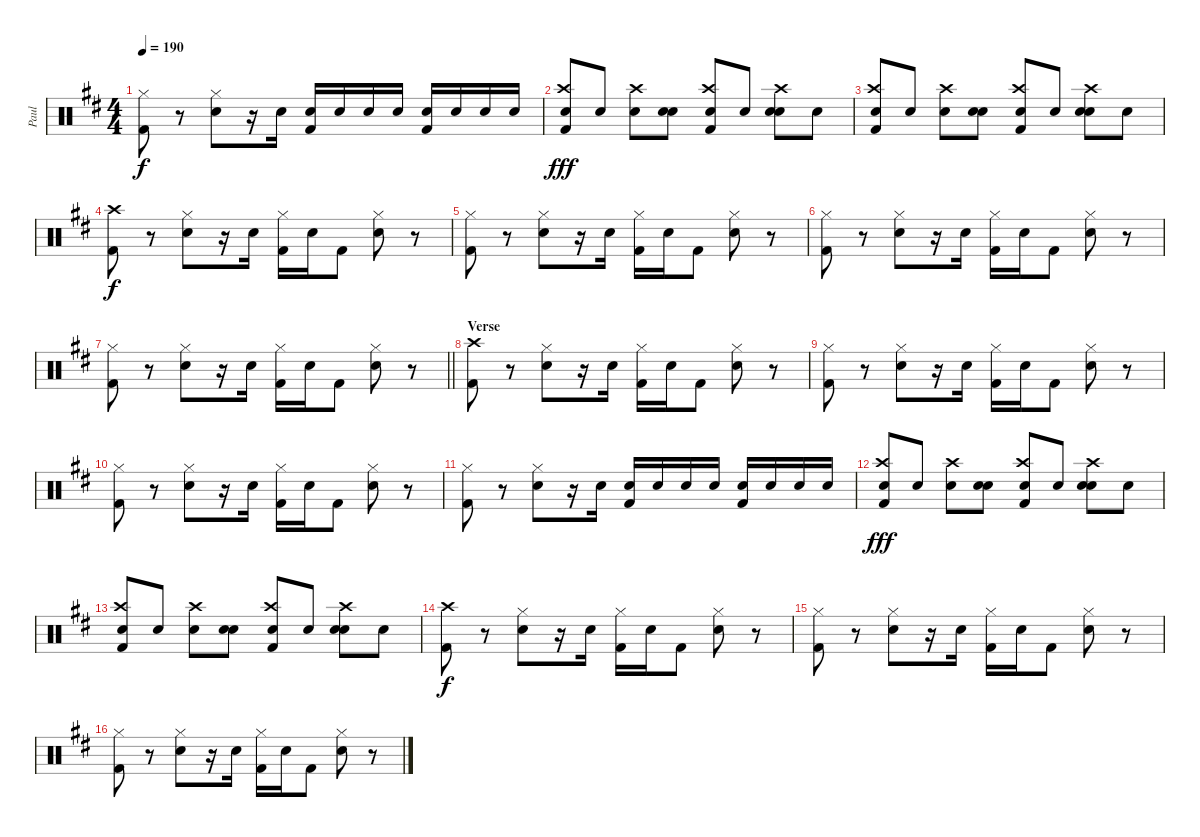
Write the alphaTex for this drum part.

\track ("Paul" "Paul") {instrument percussion}
\staff {score}
\articulation defaults
\ts (4 4)
\tempo 190
\clef neutral
\ks d
("Hi-Hat (closed)" "Kick (hit) 2").8{dy f} r.8 ("Hi-Hat (closed)" "Electric Snare (hit)").8 r.16 "Electric Snare (hit)".16 ("Electric Snare (hit)" "Kick (hit) 2").16 "Electric Snare (hit)".16 "Electric Snare (hit)".16 "Electric Snare (hit)".16 ("Electric Snare (hit)" "Kick (hit) 2").16 "Electric Snare (hit)".16 "Electric Snare (hit)".16 "Electric Snare (hit)".16 |
("Crash high (hit)" "Hand Clap (hit)" "Kick (hit) 2").8{dy fff} "Hand Clap (hit)".8 ("Crash high (hit)" "Hand Clap (hit)").8 ("Hand Clap (hit)" "Electric Snare (hit)").8 ("Crash high (hit)" "Hand Clap (hit)" "Kick (hit) 2").8 "Hand Clap (hit)".8 ("Crash high (hit)" "Hand Clap (hit)" "Electric Snare (hit)").8 "Hand Clap (hit)".8 |
("Crash high (hit)" "Hand Clap (hit)" "Kick (hit) 2").8 "Hand Clap (hit)".8 ("Crash high (hit)" "Hand Clap (hit)").8 ("Hand Clap (hit)" "Electric Snare (hit)").8 ("Crash high (hit)" "Hand Clap (hit)" "Kick (hit) 2").8 "Hand Clap (hit)".8 ("Crash high (hit)" "Hand Clap (hit)" "Electric Snare (hit)").8 "Hand Clap (hit)".8 |
("Crash high (hit)" "Kick (hit) 2").8{dy f} r.8 ("Hi-Hat (closed)" "Electric Snare (hit)").8 r.16 "Electric Snare (hit)".16 ("Hi-Hat (closed)" "Kick (hit) 2").16 "Electric Snare (hit)".16 "Kick (hit) 2".8 ("Hi-Hat (closed)" "Electric Snare (hit)").8 r.8 |
("Hi-Hat (closed)" "Kick (hit) 2").8 r.8 ("Hi-Hat (closed)" "Electric Snare (hit)").8 r.16 "Electric Snare (hit)".16 ("Hi-Hat (closed)" "Kick (hit) 2").16 "Electric Snare (hit)".16 "Kick (hit) 2".8 ("Hi-Hat (closed)" "Electric Snare (hit)").8 r.8 |
("Hi-Hat (closed)" "Kick (hit) 2").8 r.8 ("Hi-Hat (closed)" "Electric Snare (hit)").8 r.16 "Electric Snare (hit)".16 ("Hi-Hat (closed)" "Kick (hit) 2").16 "Electric Snare (hit)".16 "Kick (hit) 2".8 ("Hi-Hat (closed)" "Electric Snare (hit)").8 r.8 |
\barLineRight lightlight
("Hi-Hat (closed)" "Kick (hit) 2").8 r.8 ("Hi-Hat (closed)" "Electric Snare (hit)").8 r.16 "Electric Snare (hit)".16 ("Hi-Hat (closed)" "Kick (hit) 2").16 "Electric Snare (hit)".16 "Kick (hit) 2".8 ("Hi-Hat (closed)" "Electric Snare (hit)").8 r.8 |
\section ("" "Verse")
("Crash high (hit)" "Kick (hit) 2").8 r.8 ("Hi-Hat (closed)" "Electric Snare (hit)").8 r.16 "Electric Snare (hit)".16 ("Hi-Hat (closed)" "Kick (hit) 2").16 "Electric Snare (hit)".16 "Kick (hit) 2".8 ("Hi-Hat (closed)" "Electric Snare (hit)").8 r.8 |
("Hi-Hat (closed)" "Kick (hit) 2").8 r.8 ("Hi-Hat (closed)" "Electric Snare (hit)").8 r.16 "Electric Snare (hit)".16 ("Hi-Hat (closed)" "Kick (hit) 2").16 "Electric Snare (hit)".16 "Kick (hit) 2".8 ("Hi-Hat (closed)" "Electric Snare (hit)").8 r.8 |
("Hi-Hat (closed)" "Kick (hit) 2").8 r.8 ("Hi-Hat (closed)" "Electric Snare (hit)").8 r.16 "Electric Snare (hit)".16 ("Hi-Hat (closed)" "Kick (hit) 2").16 "Electric Snare (hit)".16 "Kick (hit) 2".8 ("Hi-Hat (closed)" "Electric Snare (hit)").8 r.8 |
("Hi-Hat (closed)" "Kick (hit) 2").8 r.8 ("Hi-Hat (closed)" "Electric Snare (hit)").8 r.16 "Electric Snare (hit)".16 ("Electric Snare (hit)" "Kick (hit) 2").16 "Electric Snare (hit)".16 "Electric Snare (hit)".16 "Electric Snare (hit)".16 ("Electric Snare (hit)" "Kick (hit) 2").16 "Electric Snare (hit)".16 "Electric Snare (hit)".16 "Electric Snare (hit)".16 |
("Crash high (hit)" "Hand Clap (hit)" "Kick (hit) 2").8{dy fff} "Hand Clap (hit)".8 ("Crash high (hit)" "Hand Clap (hit)").8 ("Hand Clap (hit)" "Electric Snare (hit)").8 ("Crash high (hit)" "Hand Clap (hit)" "Kick (hit) 2").8 "Hand Clap (hit)".8 ("Crash high (hit)" "Hand Clap (hit)" "Electric Snare (hit)").8 "Hand Clap (hit)".8 |
("Crash high (hit)" "Hand Clap (hit)" "Kick (hit) 2").8 "Hand Clap (hit)".8 ("Crash high (hit)" "Hand Clap (hit)").8 ("Hand Clap (hit)" "Electric Snare (hit)").8 ("Crash high (hit)" "Hand Clap (hit)" "Kick (hit) 2").8 "Hand Clap (hit)".8 ("Crash high (hit)" "Hand Clap (hit)" "Electric Snare (hit)").8 "Hand Clap (hit)".8 |
("Crash high (hit)" "Kick (hit) 2").8{dy f} r.8 ("Hi-Hat (closed)" "Electric Snare (hit)").8 r.16 "Electric Snare (hit)".16 ("Hi-Hat (closed)" "Kick (hit) 2").16 "Electric Snare (hit)".16 "Kick (hit) 2".8 ("Hi-Hat (closed)" "Electric Snare (hit)").8 r.8 |
("Hi-Hat (closed)" "Kick (hit) 2").8 r.8 ("Hi-Hat (closed)" "Electric Snare (hit)").8 r.16 "Electric Snare (hit)".16 ("Hi-Hat (closed)" "Kick (hit) 2").16 "Electric Snare (hit)".16 "Kick (hit) 2".8 ("Hi-Hat (closed)" "Electric Snare (hit)").8 r.8 |
("Hi-Hat (closed)" "Kick (hit) 2").8 r.8 ("Hi-Hat (closed)" "Electric Snare (hit)").8 r.16 "Electric Snare (hit)".16 ("Hi-Hat (closed)" "Kick (hit) 2").16 "Electric Snare (hit)".16 "Kick (hit) 2".8 ("Hi-Hat (closed)" "Electric Snare (hit)").8 r.8
